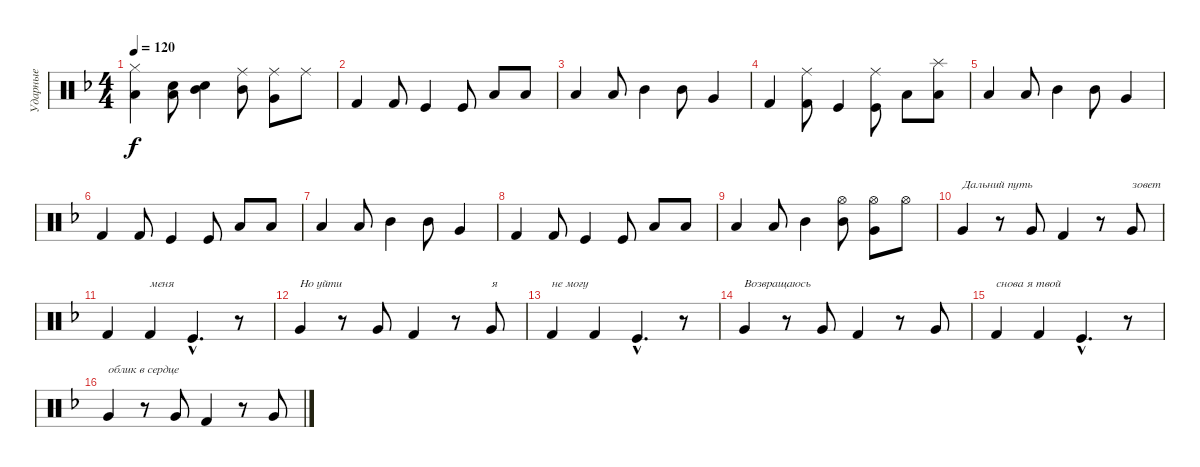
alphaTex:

\track ("Ударные" "Ударные") {instrument percussion}
\staff {score}
\articulation defaults
\ts (4 4)
\tempo 120
\clef neutral
\ks f
("Low Tom (hit)" "Hi-Hat (closed)").4{dy f} ("Low Tom (hit)" "Metronome (bell)").8 ("Mid Tom (hit)" "Metronome (bell)").4 ("Ride (middle)" "Mid Tom (hit)").8 ("Ride (middle)" "Very Low Tom (hit)").8 "Ride (middle)".8 |
"Kick (hit) 2".4 "Kick (hit) 2".8 "Kick (hit)".4 "Kick (hit)".8 "Low Tom (hit)".8 "Low Tom (hit)".8 |
"Low Tom (hit)".4 "Low Tom (hit)".8 "Mid Tom (hit)".4 "Mid Tom (hit)".8 "Very Low Tom (hit)".4 |
"Kick (hit) 2".4 ("Kick (hit) 2" "Ride (middle)").8 "Kick (hit)".4 ("Kick (hit)" "Ride (middle)").8 "Low Tom (hit)".8 ("Low Tom (hit)" "Splash (hit)").8 |
"Low Tom (hit)".4 "Low Tom (hit)".8 "Mid Tom (hit)".4 "Mid Tom (hit)".8 "Very Low Tom (hit)".4 |
"Kick (hit) 2".4 "Kick (hit) 2".8 "Kick (hit)".4 "Kick (hit)".8 "Low Tom (hit)".8 "Low Tom (hit)".8 |
"Low Tom (hit)".4 "Low Tom (hit)".8 "Mid Tom (hit)".4 "Mid Tom (hit)".8 "Very Low Tom (hit)".4 |
"Kick (hit) 2".4 "Kick (hit) 2".8 "Kick (hit)".4 "Kick (hit)".8 "Low Tom (hit)".8 "Low Tom (hit)".8 |
"Low Tom (hit)".4 "Low Tom (hit)".8 "Mid Tom (hit)".4 ("Hi-Hat (open)" "Mid Tom (hit)").8 ("Hi-Hat (open)" "Very Low Tom (hit)").8 "Hi-Hat (open)".8 |
"Very Low Tom (hit)".4{txt "Дальний путь" volume 12} r.8 "Very Low Tom (hit)".8 "Kick (hit) 2".4 r.8 "Very Low Tom (hit)".8{txt "зовет"} |
"Kick (hit) 2".4 "Kick (hit) 2".4{txt "меня"} "Kick (hit)"{hac}.4{d} r.8 |
"Very Low Tom (hit)".4{txt "Но уйти"} r.8 "Very Low Tom (hit)".8 "Kick (hit) 2".4 r.8 "Very Low Tom (hit)".8{txt "я"} |
"Kick (hit) 2".4{txt "не могу"} "Kick (hit) 2".4 "Kick (hit)"{hac}.4{d} r.8 |
"Very Low Tom (hit)".4{txt "Возвращаюсь"} r.8 "Very Low Tom (hit)".8 "Kick (hit) 2".4 r.8 "Very Low Tom (hit)".8 |
"Kick (hit) 2".4{txt "снова я твой"} "Kick (hit) 2".4 "Kick (hit)"{hac}.4{d} r.8 |
"Very Low Tom (hit)".4{txt "облик в сердце"} r.8 "Very Low Tom (hit)".8 "Kick (hit) 2".4 r.8 "Very Low Tom (hit)".8
